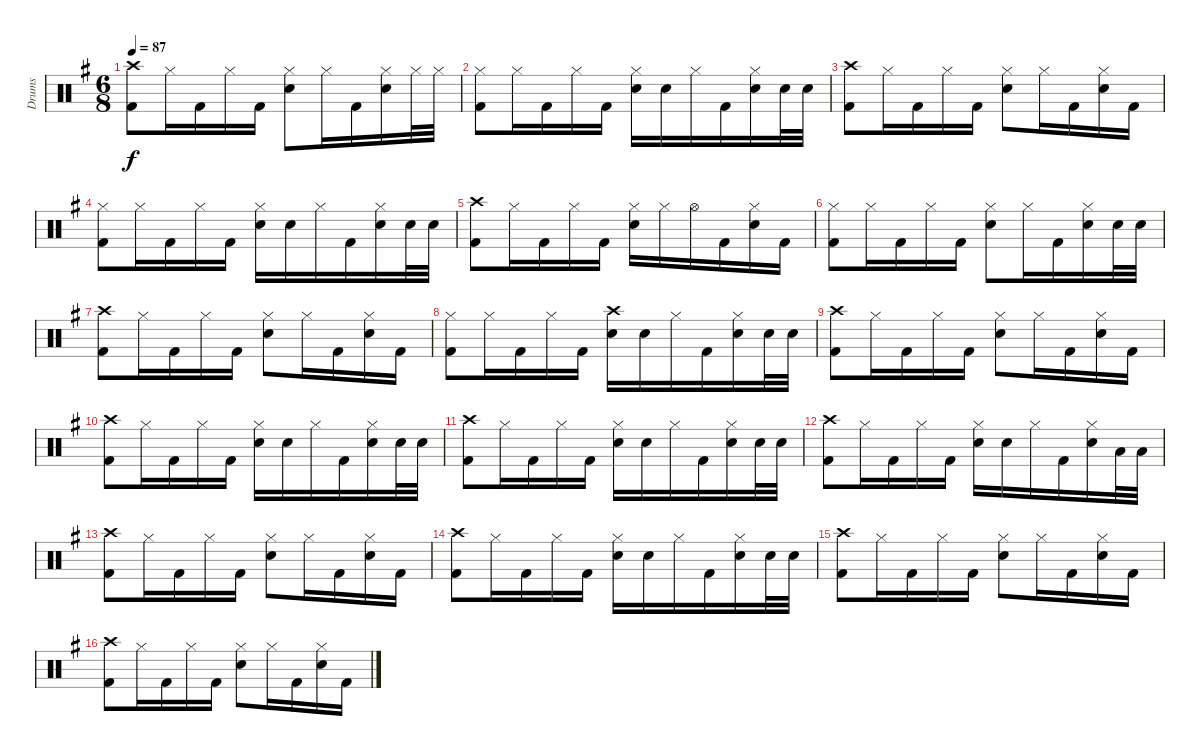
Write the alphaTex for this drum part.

\track ("Drums" "Drums") {instrument percussion}
\staff {score}
\articulation defaults
\ts (6 8)
\tempo 87
\clef neutral
\ks g
("Crash high (hit)" "Kick (hit) 2").8{dy f} "Hi-Hat (closed)".16 "Kick (hit) 2".16 "Hi-Hat (closed)".16 "Kick (hit) 2".16 ("Hi-Hat (closed)" "Electric Snare (hit)").8 "Hi-Hat (closed)".16 "Kick (hit) 2".16 ("Hi-Hat (closed)" "Electric Snare (hit)").16 "Hi-Hat (closed)".32 "Hi-Hat (closed)".32 |
("Hi-Hat (closed)" "Kick (hit) 2").8 "Hi-Hat (closed)".16 "Kick (hit) 2".16 "Hi-Hat (closed)".16 "Kick (hit) 2".16 ("Hi-Hat (closed)" "Electric Snare (hit)").16 "Electric Snare (hit)".16 "Hi-Hat (closed)".16 "Kick (hit) 2".16 ("Hi-Hat (closed)" "Electric Snare (hit)").16 "Electric Snare (hit)".32 "Electric Snare (hit)".32 |
("Crash high (hit)" "Kick (hit) 2").8 "Hi-Hat (closed)".16 "Kick (hit) 2".16 "Hi-Hat (closed)".16 "Kick (hit) 2".16 ("Hi-Hat (closed)" "Electric Snare (hit)").8 "Hi-Hat (closed)".16 "Kick (hit) 2".16 ("Hi-Hat (closed)" "Electric Snare (hit)").16 "Kick (hit) 2".16 |
("Hi-Hat (closed)" "Kick (hit) 2").8 "Hi-Hat (closed)".16 "Kick (hit) 2".16 "Hi-Hat (closed)".16 "Kick (hit) 2".16 ("Hi-Hat (closed)" "Electric Snare (hit)").16 "Electric Snare (hit)".16 "Hi-Hat (closed)".16 "Kick (hit) 2".16 ("Hi-Hat (closed)" "Electric Snare (hit)").16 "Electric Snare (hit)".32 "Electric Snare (hit)".32 |
("Crash high (hit)" "Kick (hit) 2").8 "Hi-Hat (closed)".16 "Kick (hit) 2".16 "Hi-Hat (closed)".16 "Kick (hit) 2".16 ("Hi-Hat (closed)" "Electric Snare (hit)").16 "Hi-Hat (closed)".16 "Hi-Hat (open)".16 "Kick (hit) 2".16 ("Hi-Hat (closed)" "Electric Snare (hit)").16 "Kick (hit) 2".16 |
("Hi-Hat (closed)" "Kick (hit) 2").8 "Hi-Hat (closed)".16 "Kick (hit) 2".16 "Hi-Hat (closed)".16 "Kick (hit) 2".16 ("Hi-Hat (closed)" "Electric Snare (hit)").8 "Hi-Hat (closed)".16 "Kick (hit) 2".16 ("Hi-Hat (closed)" "Electric Snare (hit)").16 "Electric Snare (hit)".32 "Electric Snare (hit)".32 |
("Crash high (hit)" "Kick (hit) 2").8 "Hi-Hat (closed)".16 "Kick (hit) 2".16 "Hi-Hat (closed)".16 "Kick (hit) 2".16 ("Hi-Hat (closed)" "Electric Snare (hit)").8 "Hi-Hat (closed)".16 "Kick (hit) 2".16 ("Hi-Hat (closed)" "Electric Snare (hit)").16 "Kick (hit) 2".16 |
("Hi-Hat (closed)" "Kick (hit) 2").8 "Hi-Hat (closed)".16 "Kick (hit) 2".16 "Hi-Hat (closed)".16 "Kick (hit) 2".16 ("Crash high (hit)" "Electric Snare (hit)").16 "Electric Snare (hit)".16 "Hi-Hat (closed)".16 "Kick (hit) 2".16 ("Hi-Hat (closed)" "Electric Snare (hit)").16 "Electric Snare (hit)".32 "Electric Snare (hit)".32 |
("Crash high (hit)" "Kick (hit) 2").8 "Hi-Hat (closed)".16 "Kick (hit) 2".16 "Hi-Hat (closed)".16 "Kick (hit) 2".16 ("Hi-Hat (closed)" "Electric Snare (hit)").8 "Hi-Hat (closed)".16 "Kick (hit) 2".16 ("Hi-Hat (closed)" "Electric Snare (hit)").16 "Kick (hit) 2".16 |
("Crash high (hit)" "Kick (hit) 2").8 "Hi-Hat (closed)".16 "Kick (hit) 2".16 "Hi-Hat (closed)".16 "Kick (hit) 2".16 ("Hi-Hat (closed)" "Electric Snare (hit)").16 "Electric Snare (hit)".16 "Hi-Hat (closed)".16 "Kick (hit) 2".16 ("Hi-Hat (closed)" "Electric Snare (hit)").16 "Electric Snare (hit)".32 "Electric Snare (hit)".32 |
("Crash high (hit)" "Kick (hit) 2").8 "Hi-Hat (closed)".16 "Kick (hit) 2".16 "Hi-Hat (closed)".16 "Kick (hit) 2".16 ("Hi-Hat (closed)" "Electric Snare (hit)").16 "Electric Snare (hit)".16 "Hi-Hat (closed)".16 "Kick (hit) 2".16 ("Hi-Hat (closed)" "Electric Snare (hit)").16 "Electric Snare (hit)".32 "Electric Snare (hit)".32 |
("Crash high (hit)" "Kick (hit) 2").8 "Hi-Hat (closed)".16 "Kick (hit) 2".16 "Hi-Hat (closed)".16 "Kick (hit) 2".16 ("Hi-Hat (closed)" "Electric Snare (hit)").16 "Electric Snare (hit)".16 "Hi-Hat (closed)".16 "Kick (hit) 2".16 ("Hi-Hat (closed)" "Electric Snare (hit)").16 "Low Tom (hit)".32 "Low Tom (hit)".32 |
("Crash high (hit)" "Kick (hit) 2").8 "Hi-Hat (closed)".16 "Kick (hit) 2".16 "Hi-Hat (closed)".16 "Kick (hit) 2".16 ("Hi-Hat (closed)" "Electric Snare (hit)").8 "Hi-Hat (closed)".16 "Kick (hit) 2".16 ("Hi-Hat (closed)" "Electric Snare (hit)").16 "Kick (hit) 2".16 |
("Crash high (hit)" "Kick (hit) 2").8 "Hi-Hat (closed)".16 "Kick (hit) 2".16 "Hi-Hat (closed)".16 "Kick (hit) 2".16 ("Hi-Hat (closed)" "Electric Snare (hit)").16 "Electric Snare (hit)".16 "Hi-Hat (closed)".16 "Kick (hit) 2".16 ("Hi-Hat (closed)" "Electric Snare (hit)").16 "Electric Snare (hit)".32 "Electric Snare (hit)".32 |
("Crash high (hit)" "Kick (hit) 2").8 "Hi-Hat (closed)".16 "Kick (hit) 2".16 "Hi-Hat (closed)".16 "Kick (hit) 2".16 ("Hi-Hat (closed)" "Electric Snare (hit)").8 "Hi-Hat (closed)".16 "Kick (hit) 2".16 ("Hi-Hat (closed)" "Electric Snare (hit)").16 "Kick (hit) 2".16 |
("Crash high (hit)" "Kick (hit) 2").8 "Hi-Hat (closed)".16 "Kick (hit) 2".16 "Hi-Hat (closed)".16 "Kick (hit) 2".16 ("Hi-Hat (closed)" "Electric Snare (hit)").8 "Hi-Hat (closed)".16 "Kick (hit) 2".16 ("Hi-Hat (closed)" "Electric Snare (hit)").16 "Kick (hit) 2".16
